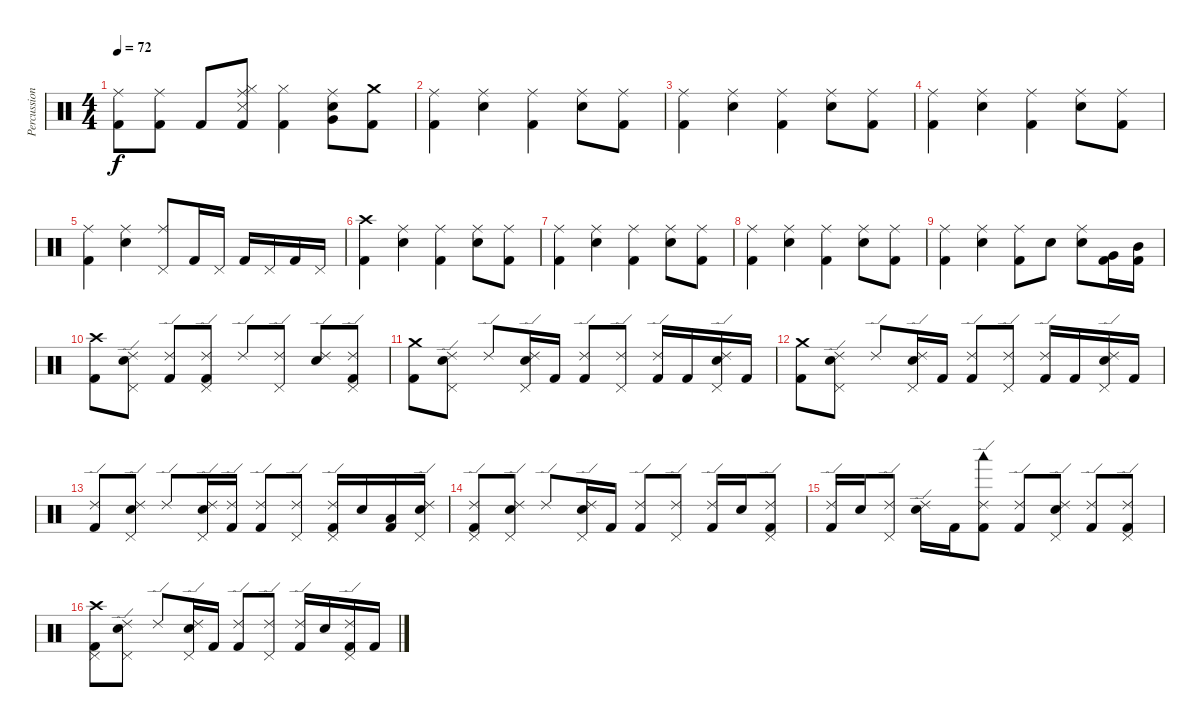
\track ("Percussion" "Percussion") {instrument percussion}
\staff {score}
\articulation defaults
\ts (4 4)
\tempo 72
\clef neutral
\ks c
("Kick (hit) 2" "Ride (middle)").8{dy f} ("Kick (hit) 2" "Ride (middle)").8 "Kick (hit) 2".8 ("Kick (hit) 2" "Hi-Hat (closed)" "Snare (side stick) 3" "Ride (middle)").8 ("Kick (hit) 2" "Hi-Hat (closed)").4 ("Snare (hit) 2" "Very Low Tom (hit)" "Ride (middle)").8 ("Kick (hit) 2" "Crash medium (hit)").8 |
("Kick (hit) 2" "Ride (middle)").4 ("Snare (hit) 2" "Ride (middle)").4 ("Kick (hit) 2" "Ride (middle)").4 ("Snare (hit) 2" "Ride (middle)").8 ("Kick (hit) 2" "Ride (middle)").8 |
("Kick (hit) 2" "Ride (middle)").4 ("Snare (hit) 2" "Ride (middle)").4 ("Kick (hit) 2" "Ride (middle)").4 ("Snare (hit) 2" "Ride (middle)").8 ("Kick (hit) 2" "Ride (middle)").8 |
("Kick (hit) 2" "Ride (middle)").4 ("Snare (hit) 2" "Ride (middle)").4 ("Kick (hit) 2" "Ride (middle)").4 ("Snare (hit) 2" "Ride (middle)").8 ("Kick (hit) 2" "Ride (middle)").8 |
("Kick (hit) 2" "Ride (middle)").4 ("Snare (hit) 2" "Ride (middle)").4 ("Pedal Hi-Hat (hit)" "Ride (middle)").8 "Kick (hit) 2".16 "Pedal Hi-Hat (hit)".16 "Kick (hit) 2".16 "Pedal Hi-Hat (hit)".16 "Kick (hit) 2".16 "Pedal Hi-Hat (hit)".16 |
("Kick (hit) 2" "Crash high (hit)").4 ("Snare (hit) 2" "Ride (middle)").4 ("Kick (hit) 2" "Ride (middle)").4 ("Snare (hit) 2" "Ride (middle)").8 ("Kick (hit) 2" "Ride (middle)").8 |
("Kick (hit) 2" "Ride (middle)").4 ("Snare (hit) 2" "Ride (middle)").4 ("Kick (hit) 2" "Ride (middle)").4 ("Snare (hit) 2" "Ride (middle)").8 ("Kick (hit) 2" "Ride (middle)").8 |
("Kick (hit) 2" "Ride (middle)").4 ("Snare (hit) 2" "Ride (middle)").4 ("Kick (hit) 2" "Ride (middle)").4 ("Snare (hit) 2" "Ride (middle)").8 ("Kick (hit) 2" "Ride (middle)").8 |
("Kick (hit) 2" "Ride (middle)").4 ("Snare (hit) 2" "Ride (middle)").4 ("Kick (hit) 2" "Ride (middle)").8 "Snare (hit) 2".8 ("Snare (hit) 2" "Ride (middle)").8 ("Very Low Tom (hit)" "Kick (hit) 2").16 ("Mid Tom (hit)" "Kick (hit) 2").16 |
("Kick (hit) 2" "Crash high (hit)").8 ("Snare (hit) 2" "Ride (edge) 2" "Pedal Hi-Hat (hit)").8 ("Kick (hit) 2" "Ride (edge) 2").8 ("Kick (hit) 2" "Pedal Hi-Hat (hit)" "Ride (edge) 2").8 "Ride (edge) 2".8 ("Pedal Hi-Hat (hit)" "Ride (edge) 2").8 ("Snare (hit) 2" "Ride (edge) 2").8 ("Kick (hit) 2" "Pedal Hi-Hat (hit)" "Ride (edge) 2").8 |
("Kick (hit) 2" "Crash medium (hit)").8 ("Snare (hit) 2" "Ride (edge) 2" "Pedal Hi-Hat (hit)").8 "Ride (edge) 2".8 ("Snare (hit) 2" "Ride (edge) 2" "Pedal Hi-Hat (hit)").16 "Kick (hit) 2".16 ("Kick (hit) 2" "Ride (edge) 2").8 ("Pedal Hi-Hat (hit)" "Ride (edge) 2").8 ("Kick (hit) 2" "Ride (edge) 2").16 "Kick (hit) 2".16 ("Snare (hit) 2" "Ride (edge) 2" "Pedal Hi-Hat (hit)").16 "Kick (hit) 2".16 |
("Kick (hit) 2" "Crash medium (hit)").8 ("Snare (hit) 2" "Ride (edge) 2" "Pedal Hi-Hat (hit)").8 "Ride (edge) 2".8 ("Snare (hit) 2" "Ride (edge) 2" "Pedal Hi-Hat (hit)").16 "Kick (hit) 2".16 ("Kick (hit) 2" "Ride (edge) 2").8 ("Pedal Hi-Hat (hit)" "Ride (edge) 2").8 ("Kick (hit) 2" "Ride (edge) 2").16 "Kick (hit) 2".16 ("Snare (hit) 2" "Ride (edge) 2" "Pedal Hi-Hat (hit)").16 "Kick (hit) 2".16 |
("Kick (hit) 2" "Ride (edge) 2").8 ("Snare (hit) 2" "Ride (edge) 2" "Pedal Hi-Hat (hit)").8 "Ride (edge) 2".8 ("Snare (hit) 2" "Ride (edge) 2" "Pedal Hi-Hat (hit)").16 ("Kick (hit) 2" "Ride (edge) 2").16 ("Kick (hit) 2" "Ride (edge) 2").8 ("Ride (edge) 2" "Pedal Hi-Hat (hit)").8 ("Kick (hit) 2" "Ride (edge) 2" "Pedal Hi-Hat (hit)").16 "Snare (hit) 2".16 ("Kick (hit) 2" "Low Floor Tom (hit)").16 ("Snare (hit) 2" "Ride (edge) 2" "Pedal Hi-Hat (hit)").16 |
("Kick (hit) 2" "Pedal Hi-Hat (hit)" "Ride (edge) 2").8 ("Snare (hit) 2" "Pedal Hi-Hat (hit)" "Ride (edge) 2").8 "Ride (edge) 2".8 ("Snare (hit) 2" "Pedal Hi-Hat (hit)" "Ride (edge) 2").16 "Kick (hit) 2".16 ("Kick (hit) 2" "Ride (edge) 2").8 ("Pedal Hi-Hat (hit)" "Ride (edge) 2").8 ("Kick (hit) 2" "Ride (edge) 2").16 "Snare (hit) 2".16 ("Kick (hit) 2" "Pedal Hi-Hat (hit)" "Ride (edge) 2").8 |
("Kick (hit) 2" "Ride (edge) 2").16 "Snare (hit) 2".16 ("Ride (edge) 2" "Pedal Hi-Hat (hit)").8 ("Snare (hit) 2" "Ride (edge) 2").16 "Kick (hit) 2".16 ("Kick (hit) 2" "Ride (edge) 2" "Woodblock low (hit)").8 ("Kick (hit) 2" "Ride (edge) 2").8 ("Snare (hit) 2" "Ride (edge) 2" "Pedal Hi-Hat (hit)").8 ("Kick (hit) 2" "Ride (edge) 2").8 ("Kick (hit) 2" "Ride (edge) 2" "Pedal Hi-Hat (hit)").8 |
("Kick (hit) 2" "Crash high (hit)" "Pedal Hi-Hat (hit)").8 ("Snare (hit) 2" "Ride (edge) 2" "Pedal Hi-Hat (hit)").8 "Ride (edge) 2".8 ("Snare (hit) 2" "Ride (edge) 2" "Pedal Hi-Hat (hit)").16 "Kick (hit) 2".16 ("Kick (hit) 2" "Ride (edge) 2").8 ("Ride (edge) 2" "Pedal Hi-Hat (hit)").8 ("Kick (hit) 2" "Ride (edge) 2").16 "Snare (hit) 2".16 ("Kick (hit) 2" "Ride (edge) 2" "Pedal Hi-Hat (hit)").16 "Kick (hit) 2".16
